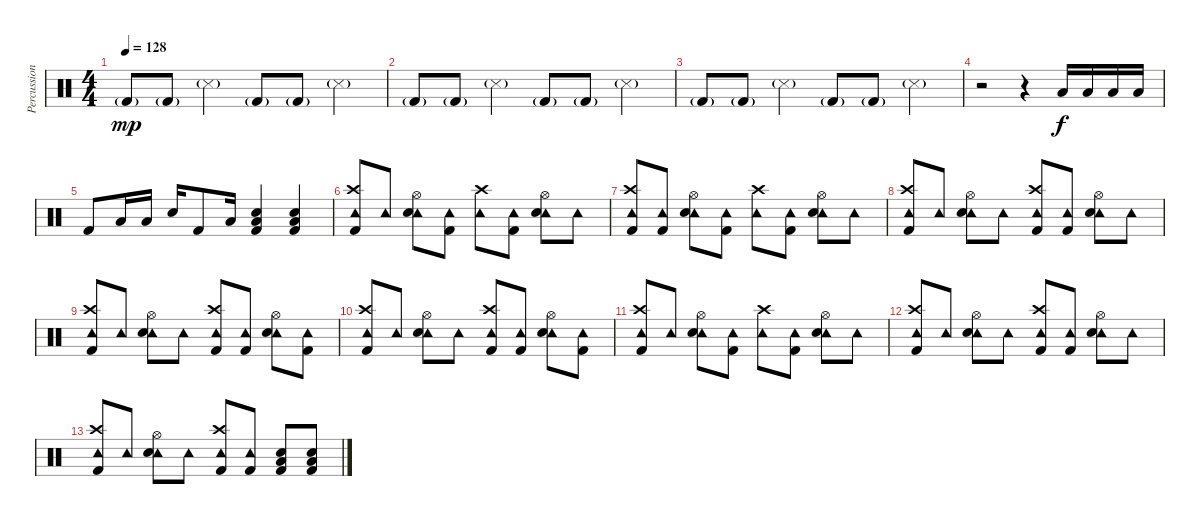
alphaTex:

\track ("Percussion" "Percussion") {instrument percussion}
\staff {score}
\articulation defaults
\ts (4 4)
\tempo 128
\clef neutral
\ks c "Kick (hit) 2"{g}.8{dy mp} "Kick (hit) 2"{g}.8 "Snare (side stick) 3"{g}.4 "Kick (hit) 2"{g}.8 "Kick (hit) 2"{g}.8 "Snare (side stick) 3"{g}.4
|
"Kick (hit) 2"{g}.8 "Kick (hit) 2"{g}.8 "Snare (side stick) 3"{g}.4 "Kick (hit) 2"{g}.8 "Kick (hit) 2"{g}.8 "Snare (side stick) 3"{g}.4 |
"Kick (hit) 2"{g}.8 "Kick (hit) 2"{g}.8 "Snare (side stick) 3"{g}.4 "Kick (hit) 2"{g}.8 "Kick (hit) 2"{g}.8 "Snare (side stick) 3"{g}.4 |
r.2 r.4 "Low Tom (hit)".16{dy f} "Low Tom (hit)".16 "Low Tom (hit)".16 "Low Tom (hit)".16 |
"Kick (hit) 2".8 "Low Tom (hit)".16 "Low Tom (hit)".16 "Snare (hit) 2".16 "Kick (hit) 2".8 "Low Floor Tom (hit)".16 ("Low Tom (hit)" "Kick (hit) 2" "Snare (hit) 2").4 ("Low Tom (hit)" "Snare (hit) 2" "Kick (hit) 2").4 |
("Crash high (hit)" "Tambourine (hit)" "Kick (hit) 2").8 "Tambourine (hit)".8 ("Tambourine (hit)" "Hi-Hat (open)" "Snare (hit) 2").8 ("Tambourine (hit)" "Kick (hit) 2").8 ("Crash high (hit)" "Tambourine (hit)").8 ("Tambourine (hit)" "Kick (hit) 2").8 ("Tambourine (hit)" "Hi-Hat (open)" "Snare (hit) 2").8 "Tambourine (hit)".8 |
("Crash high (hit)" "Tambourine (hit)" "Kick (hit) 2").8 ("Tambourine (hit)" "Kick (hit) 2").8 ("Tambourine (hit)" "Hi-Hat (open)" "Snare (hit) 2").8 ("Tambourine (hit)" "Kick (hit) 2").8 ("Crash high (hit)" "Tambourine (hit)").8 ("Tambourine (hit)" "Kick (hit) 2").8 ("Tambourine (hit)" "Hi-Hat (open)" "Snare (hit) 2").8 "Tambourine (hit)".8 |
("Crash high (hit)" "Tambourine (hit)" "Kick (hit) 2").8 "Tambourine (hit)".8 ("Tambourine (hit)" "Hi-Hat (open)" "Snare (hit) 2").8 "Tambourine (hit)".8 ("Crash high (hit)" "Tambourine (hit)" "Kick (hit) 2").8 ("Tambourine (hit)" "Kick (hit) 2").8 ("Tambourine (hit)" "Hi-Hat (open)" "Snare (hit) 2").8 "Tambourine (hit)".8 |
("Crash high (hit)" "Tambourine (hit)" "Kick (hit) 2").8 "Tambourine (hit)".8 ("Tambourine (hit)" "Hi-Hat (open)" "Snare (hit) 2").8 "Tambourine (hit)".8 ("Crash high (hit)" "Tambourine (hit)" "Kick (hit) 2").8 ("Tambourine (hit)" "Kick (hit) 2").8 ("Tambourine (hit)" "Hi-Hat (open)" "Snare (hit) 2").8 ("Tambourine (hit)" "Kick (hit) 2").8 |
("Crash high (hit)" "Tambourine (hit)" "Kick (hit) 2").8 "Tambourine (hit)".8 ("Tambourine (hit)" "Hi-Hat (open)" "Snare (hit) 2").8 "Tambourine (hit)".8 ("Crash high (hit)" "Tambourine (hit)" "Kick (hit) 2").8 ("Tambourine (hit)" "Kick (hit) 2").8 ("Tambourine (hit)" "Hi-Hat (open)" "Snare (hit) 2").8 ("Tambourine (hit)" "Kick (hit) 2").8 |
("Crash high (hit)" "Tambourine (hit)" "Kick (hit) 2").8 "Tambourine (hit)".8 ("Tambourine (hit)" "Hi-Hat (open)" "Snare (hit) 2").8 ("Tambourine (hit)" "Kick (hit) 2").8 ("Crash high (hit)" "Tambourine (hit)").8 ("Tambourine (hit)" "Kick (hit) 2").8 ("Tambourine (hit)" "Hi-Hat (open)" "Snare (hit) 2").8 "Tambourine (hit)".8 |
("Crash high (hit)" "Tambourine (hit)" "Kick (hit) 2").8 "Tambourine (hit)".8 ("Tambourine (hit)" "Hi-Hat (open)" "Snare (hit) 2").8 "Tambourine (hit)".8 ("Crash high (hit)" "Tambourine (hit)" "Kick (hit) 2").8 ("Tambourine (hit)" "Kick (hit) 2").8 ("Tambourine (hit)" "Hi-Hat (open)" "Snare (hit) 2").8 "Tambourine (hit)".8 |
("Crash high (hit)" "Tambourine (hit)" "Kick (hit) 2").8 "Tambourine (hit)".8 ("Tambourine (hit)" "Hi-Hat (open)" "Snare (hit) 2").8 "Tambourine (hit)".8 ("Crash high (hit)" "Tambourine (hit)" "Kick (hit) 2").8 ("Tambourine (hit)" "Kick (hit) 2").8 ("Low Tom (hit)" "Snare (hit) 2" "Kick (hit) 2").8 ("Low Tom (hit)" "Snare (hit) 2" "Kick (hit) 2").8
